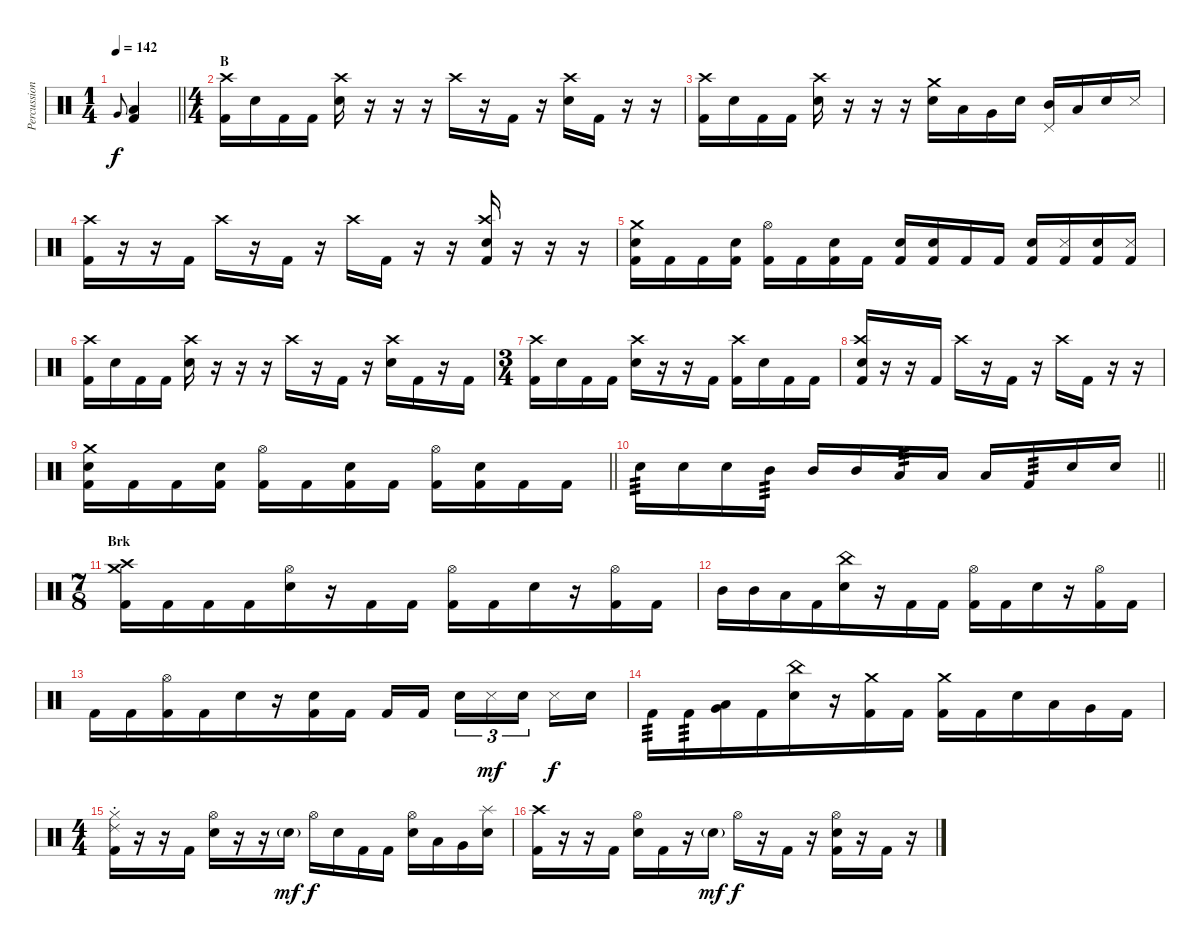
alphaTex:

\track ("Percussion" "Percussion") {instrument percussion}
\staff {score}
\articulation defaults
\ts (1 4)
\tempo 142
\clef neutral
\barLineRight lightlight
\ks c "Very Low Tom (hit)".8{gr onbeat dy f}
("Low Floor Tom (hit)" "Kick (hit) 2").4 |
\ts (4 4)
\section ("" "B")
("Crash high (hit)" "Kick (hit) 2").16 "Snare (hit) 2".16 "Kick (hit) 2".16 "Kick (hit) 2".16 ("Crash high (hit)" "Snare (hit) 2").16 r.16 r.16 r.16 "Crash high (hit)".16 r.16 "Kick (hit) 2".16 r.16 ("Crash high (hit)" "Snare (hit) 2").16 "Kick (hit) 2".16 r.16 r.16 |
("Crash high (hit)" "Kick (hit) 2").16 "Snare (hit) 2".16 "Kick (hit) 2".16 "Kick (hit) 2".16 ("Crash high (hit)" "Snare (hit) 2").16 r.16 r.16 r.16 ("Crash medium (hit)" "Snare (hit) 2").16 "Low Tom (hit)".16 "Very Low Tom (hit)".16 "Snare (hit) 2".16 ("Pedal Hi-Hat (hit)" "Mid Tom (hit)").16 "Low Tom (hit)".16 "Snare (hit) 2".16 "Metronome (hit)".16 |
("Crash high (hit)" "Kick (hit) 2").16 r.16 r.16 "Kick (hit) 2".16 "Crash high (hit)".16 r.16 "Kick (hit) 2".16 r.16 "Crash high (hit)".16 "Kick (hit) 2".16 r.16 r.16 ("Crash high (hit)" "Snare (hit) 2" "Kick (hit) 2").16 r.16 r.16 r.16 |
("Crash medium (hit)" "Snare (hit) 2" "Kick (hit) 2").16 "Kick (hit) 2".16 "Kick (hit) 2".16 ("Snare (hit) 2" "Kick (hit) 2").16 ("Hi-Hat (open)" "Kick (hit) 2").16 "Kick (hit) 2".16 ("Snare (hit) 2" "Kick (hit) 2").16 "Kick (hit) 2".16 ("Snare (hit)" "Kick (hit) 2").16 ("Snare (hit) 2" "Kick (hit) 2").16 "Kick (hit) 2".16 "Kick (hit) 2".16 ("Snare (hit) 2" "Kick (hit) 2").16 ("Metronome (hit)" "Kick (hit) 2").16 ("Snare (hit) 2" "Kick (hit) 2").16 ("Metronome (hit)" "Kick (hit) 2").16 |
("Crash high (hit)" "Kick (hit) 2").16 "Snare (hit) 2".16 "Kick (hit) 2".16 "Kick (hit) 2".16 ("Crash high (hit)" "Snare (hit) 2").16 r.16 r.16 r.16 "Crash high (hit)".16 r.16 "Kick (hit) 2".16 r.16 ("Crash high (hit)" "Snare (hit) 2").16 "Kick (hit) 2".16 r.16 "Kick (hit) 2".16 |
\ts (3 4)
("Crash high (hit)" "Kick (hit) 2").16 "Snare (hit) 2".16 "Kick (hit) 2".16 "Kick (hit) 2".16 ("Crash high (hit)" "Snare (hit) 2").16 r.16 r.16 "Kick (hit) 2".16 ("Crash high (hit)" "Kick (hit) 2").16 "Snare (hit) 2".16 "Kick (hit) 2".16 "Kick (hit) 2".16 |
("Crash high (hit)" "Snare (hit) 2" "Kick (hit) 2").16 r.16 r.16 "Kick (hit) 2".16 "Crash high (hit)".16 r.16 "Kick (hit) 2".16 r.16 "Crash high (hit)".16 "Kick (hit) 2".16 r.16 r.16 |
\barLineRight lightlight
("Crash medium (hit)" "Snare (hit) 2" "Kick (hit) 2").16 "Kick (hit) 2".16 "Kick (hit) 2".16 ("Snare (hit) 2" "Kick (hit) 2").16 ("Hi-Hat (open)" "Kick (hit) 2").16 "Kick (hit) 2".16 ("Snare (hit) 2" "Kick (hit) 2").16 "Kick (hit) 2".16 ("Hi-Hat (open)" "Kick (hit) 2").16 ("Snare (hit) 2" "Kick (hit) 2").16 "Kick (hit) 2".16 "Kick (hit) 2".16 |
\barLineRight lightlight "Snare (hit) 2".16{tp 3} "Snare (hit) 2".16 "Snare (hit) 2".16 "Mid Tom (hit)".16{tp 3} "Mid Tom (hit)".16 "Mid Tom (hit)".16 "Low Tom (hit)".16{tp 3} "Low Tom (hit)".16 "Low Tom (hit)".16 "Kick (hit) 2".16{tp 3} "Snare (hit) 2".16 "Snare (hit) 2".16
|
\ts (7 8)
\section ("" "Brk")
("Crash medium (hit)" "Crash high (hit)" "Kick (hit) 2").16 "Kick (hit) 2".16 "Kick (hit) 2".16 "Kick (hit) 2".16 ("Hi-Hat (open)" "Snare (hit) 2").16 r.16 "Kick (hit) 2".16 "Kick (hit) 2".16 ("Hi-Hat (open)" "Kick (hit) 2").16 "Kick (hit) 2".16 "Snare (hit) 2".16 r.16 ("Hi-Hat (open)" "Kick (hit) 2").16 "Kick (hit) 2".16 |
"Mid Tom (hit)".16 "Mid Tom (hit)".16 "Low Tom (hit)".16 "Kick (hit) 2".16 ("China (hit)" "Snare (hit) 2").16 r.16 "Kick (hit) 2".16 "Kick (hit) 2".16 ("Hi-Hat (open)" "Kick (hit) 2").16 "Kick (hit) 2".16 "Snare (hit) 2".16 r.16 ("Hi-Hat (open)" "Kick (hit) 2").16 "Kick (hit) 2".16 |
"Kick (hit) 2".16 "Kick (hit) 2".16 ("Hi-Hat (open)" "Kick (hit) 2").16 "Kick (hit) 2".16 "Snare (hit) 2".16 r.16 ("Snare (hit)" "Kick (hit) 2").16 "Kick (hit) 2".16 "Kick (hit) 2".16 "Kick (hit) 2".16 "Snare (hit) 2".16{tu (3 2)} "Metronome (hit)".16{tu (3 2) dy mf} "Snare (hit) 2".16{tu (3 2)} "Metronome (hit)".16{dy f} "Snare (hit) 2".16 |
"Kick (hit) 2".16{tp 3} "Kick (hit) 2".16{tp 3} ("Low Tom (hit)" "Very Low Tom (hit)").16{bu 60} "Kick (hit) 2".16 ("China (hit)" "Snare (hit) 2").16 r.16 ("Crash medium (hit)" "Kick (hit) 2").16 "Kick (hit) 2".16 ("Crash medium (hit)" "Kick (hit) 2").16 "Kick (hit) 2".16 "Snare (hit) 2".16 "Low Tom (hit)".16 "Very Low Tom (hit)".16 "Kick (hit) 2".16 |
\ts (4 4)
("Ride (choke) 2" "Hi-Hat (closed)" "Kick (hit) 2").16 r.16 r.16 "Kick (hit) 2".16 ("Hi-Hat (open)" "Snare (hit) 2").16 r.16 r.16 "Snare (hit) 2"{g}.16{dy mf} "Hi-Hat (open)".16{dy f} "Snare (hit) 2".16 "Kick (hit) 2".16 "Kick (hit) 2".16 ("Hi-Hat (open)" "Snare (hit) 2").16 "Low Tom (hit)".16 "Very Low Tom (hit)".16 ("Splash (hit)" "Snare (hit) 2").16 |
("Crash high (hit)" "Kick (hit) 2").16 r.16 r.16 "Kick (hit) 2".16 ("Hi-Hat (open)" "Snare (hit) 2").16 "Kick (hit) 2".16 r.16 "Snare (hit) 2"{g}.16{dy mf} "Hi-Hat (open)".16{dy f} r.16 "Kick (hit) 2".16 r.16 ("Hi-Hat (open)" "Snare (hit) 2" "Kick (hit) 2").16 r.16 "Kick (hit) 2".16 r.16
